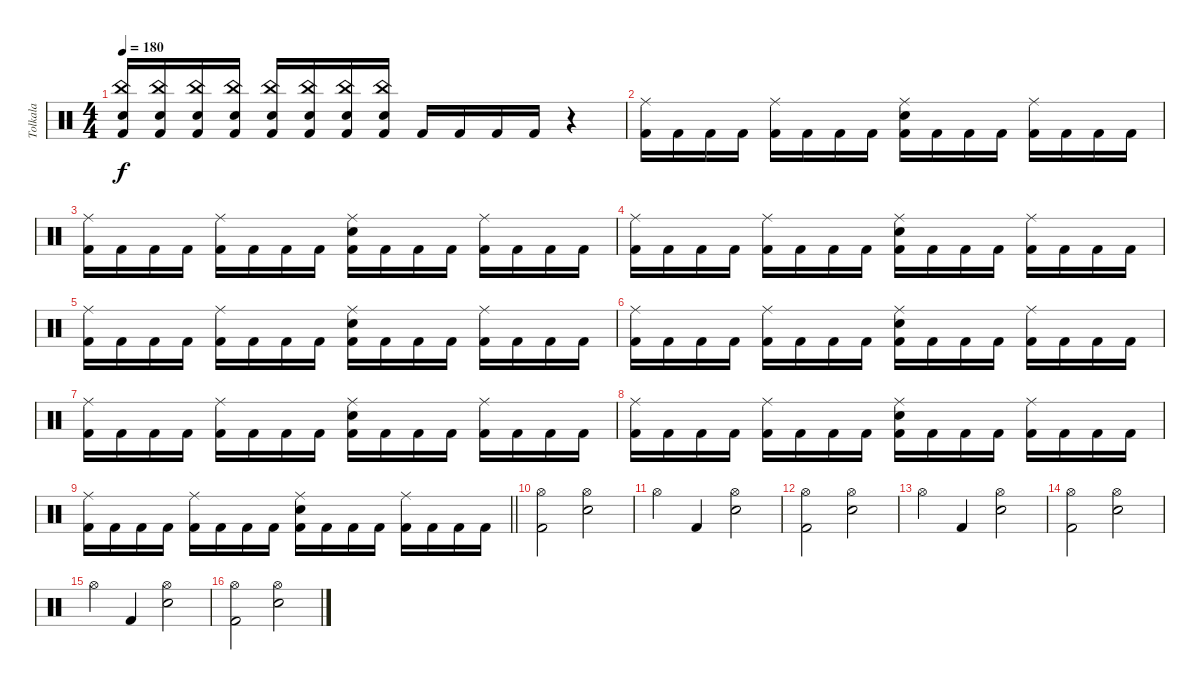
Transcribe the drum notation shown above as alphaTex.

\track ("Tolkala" "Tolkala") {instrument percussion}
\staff {score}
\articulation defaults
\ts (4 4)
\tempo 180
\clef neutral
\ks c
("Electric Snare (hit)" "China (hit)" "Kick (hit) 2").16{dy f} ("Electric Snare (hit)" "China (hit)" "Kick (hit) 2").16 ("Electric Snare (hit)" "China (hit)" "Kick (hit) 2").16 ("Electric Snare (hit)" "China (hit)" "Kick (hit) 2").16 ("Electric Snare (hit)" "China (hit)" "Kick (hit) 2").16 ("Electric Snare (hit)" "China (hit)" "Kick (hit) 2").16 ("Electric Snare (hit)" "China (hit)" "Kick (hit) 2").16 ("Electric Snare (hit)" "China (hit)" "Kick (hit) 2").16 "Kick (hit) 2".16 "Kick (hit) 2".16 "Kick (hit) 2".16 "Kick (hit) 2".16 r.4 |
("Ride (middle)" "Kick (hit) 2").16 "Kick (hit) 2".16 "Kick (hit) 2".16 "Kick (hit) 2".16 ("Ride (middle)" "Kick (hit) 2").16 "Kick (hit) 2".16 "Kick (hit) 2".16 "Kick (hit) 2".16 ("Ride (middle)" "Electric Snare (hit)" "Kick (hit) 2").16 "Kick (hit) 2".16 "Kick (hit) 2".16 "Kick (hit) 2".16 ("Ride (middle)" "Kick (hit) 2").16 "Kick (hit) 2".16 "Kick (hit) 2".16 "Kick (hit) 2".16 |
("Ride (middle)" "Kick (hit) 2").16 "Kick (hit) 2".16 "Kick (hit) 2".16 "Kick (hit) 2".16 ("Ride (middle)" "Kick (hit) 2").16 "Kick (hit) 2".16 "Kick (hit) 2".16 "Kick (hit) 2".16 ("Ride (middle)" "Electric Snare (hit)" "Kick (hit) 2").16 "Kick (hit) 2".16 "Kick (hit) 2".16 "Kick (hit) 2".16 ("Ride (middle)" "Kick (hit) 2").16 "Kick (hit) 2".16 "Kick (hit) 2".16 "Kick (hit) 2".16 |
("Ride (middle)" "Kick (hit) 2").16 "Kick (hit) 2".16 "Kick (hit) 2".16 "Kick (hit) 2".16 ("Ride (middle)" "Kick (hit) 2").16 "Kick (hit) 2".16 "Kick (hit) 2".16 "Kick (hit) 2".16 ("Ride (middle)" "Electric Snare (hit)" "Kick (hit) 2").16 "Kick (hit) 2".16 "Kick (hit) 2".16 "Kick (hit) 2".16 ("Ride (middle)" "Kick (hit) 2").16 "Kick (hit) 2".16 "Kick (hit) 2".16 "Kick (hit) 2".16 |
("Ride (middle)" "Kick (hit) 2").16 "Kick (hit) 2".16 "Kick (hit) 2".16 "Kick (hit) 2".16 ("Ride (middle)" "Kick (hit) 2").16 "Kick (hit) 2".16 "Kick (hit) 2".16 "Kick (hit) 2".16 ("Ride (middle)" "Electric Snare (hit)" "Kick (hit) 2").16 "Kick (hit) 2".16 "Kick (hit) 2".16 "Kick (hit) 2".16 ("Ride (middle)" "Kick (hit) 2").16 "Kick (hit) 2".16 "Kick (hit) 2".16 "Kick (hit) 2".16 |
("Ride (middle)" "Kick (hit) 2").16 "Kick (hit) 2".16 "Kick (hit) 2".16 "Kick (hit) 2".16 ("Ride (middle)" "Kick (hit) 2").16 "Kick (hit) 2".16 "Kick (hit) 2".16 "Kick (hit) 2".16 ("Ride (middle)" "Electric Snare (hit)" "Kick (hit) 2").16 "Kick (hit) 2".16 "Kick (hit) 2".16 "Kick (hit) 2".16 ("Ride (middle)" "Kick (hit) 2").16 "Kick (hit) 2".16 "Kick (hit) 2".16 "Kick (hit) 2".16 |
("Ride (middle)" "Kick (hit) 2").16 "Kick (hit) 2".16 "Kick (hit) 2".16 "Kick (hit) 2".16 ("Ride (middle)" "Kick (hit) 2").16 "Kick (hit) 2".16 "Kick (hit) 2".16 "Kick (hit) 2".16 ("Ride (middle)" "Electric Snare (hit)" "Kick (hit) 2").16 "Kick (hit) 2".16 "Kick (hit) 2".16 "Kick (hit) 2".16 ("Ride (middle)" "Kick (hit) 2").16 "Kick (hit) 2".16 "Kick (hit) 2".16 "Kick (hit) 2".16 |
("Ride (middle)" "Kick (hit) 2").16 "Kick (hit) 2".16 "Kick (hit) 2".16 "Kick (hit) 2".16 ("Ride (middle)" "Kick (hit) 2").16 "Kick (hit) 2".16 "Kick (hit) 2".16 "Kick (hit) 2".16 ("Ride (middle)" "Electric Snare (hit)" "Kick (hit) 2").16 "Kick (hit) 2".16 "Kick (hit) 2".16 "Kick (hit) 2".16 ("Ride (middle)" "Kick (hit) 2").16 "Kick (hit) 2".16 "Kick (hit) 2".16 "Kick (hit) 2".16 |
\barLineRight lightlight
("Ride (middle)" "Kick (hit) 2").16 "Kick (hit) 2".16 "Kick (hit) 2".16 "Kick (hit) 2".16 ("Ride (middle)" "Kick (hit) 2").16 "Kick (hit) 2".16 "Kick (hit) 2".16 "Kick (hit) 2".16 ("Ride (middle)" "Electric Snare (hit)" "Kick (hit) 2").16 "Kick (hit) 2".16 "Kick (hit) 2".16 "Kick (hit) 2".16 ("Ride (middle)" "Kick (hit) 2").16 "Kick (hit) 2".16 "Kick (hit) 2".16 "Kick (hit) 2".16 |
\section ("" "")
("Hi-Hat (open)" "Kick (hit) 2").2 ("Hi-Hat (open)" "Electric Snare (hit)").2 |
"Hi-Hat (open)".4 "Kick (hit) 2".4 ("Hi-Hat (open)" "Electric Snare (hit)").2 |
("Hi-Hat (open)" "Kick (hit) 2").2 ("Hi-Hat (open)" "Electric Snare (hit)").2 |
"Hi-Hat (open)".4 "Kick (hit) 2".4 ("Hi-Hat (open)" "Electric Snare (hit)").2 |
("Hi-Hat (open)" "Kick (hit) 2").2 ("Hi-Hat (open)" "Electric Snare (hit)").2 |
"Hi-Hat (open)".4 "Kick (hit) 2".4 ("Hi-Hat (open)" "Electric Snare (hit)").2 |
("Hi-Hat (open)" "Kick (hit) 2").2 ("Hi-Hat (open)" "Electric Snare (hit)").2
